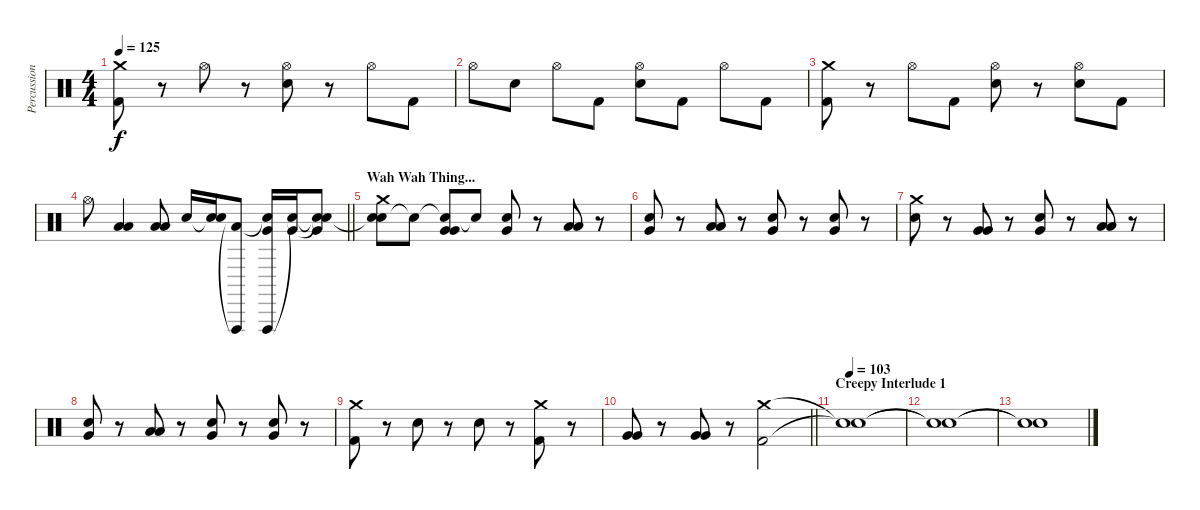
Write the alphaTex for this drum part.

\track ("Percussion" "Percussion") {instrument percussion}
\staff {score}
\articulation defaults
\ts (4 4)
\tempo 125
\clef neutral
\ks c
("Crash medium (hit)" "Kick (hit) 2").8{dy f} r.8 "Hi-Hat (open)".8 r.8 ("Hi-Hat (open)" "Electric Snare (hit)").8 r.8 "Hi-Hat (open)".8 "Kick (hit) 2".8 |
"Hi-Hat (open)".8 "Electric Snare (hit)".8 "Hi-Hat (open)".8 "Kick (hit) 2".8 ("Hi-Hat (open)" "Electric Snare (hit)").8 "Kick (hit) 2".8 "Hi-Hat (open)".8 "Kick (hit) 2".8 |
("Crash medium (hit)" "Kick (hit) 2").8 r.8 "Hi-Hat (open)".8 "Kick (hit) 2".8 ("Hi-Hat (open)" "Electric Snare (hit)").8 r.8 ("Hi-Hat (open)" "Electric Snare (hit)").8 "Kick (hit) 2".8 |
\barLineRight lightlight "Hi-Hat (open)".8
("Low Tom (hit)" "Low Tom (hit)").4 ("Low Tom (hit)" "Low Tom (hit)").8 "Electric Snare (hit)".16 ("Snare (hit)"{t} "Electric Snare (hit)").16 ("Vibraslap (hit)"{t} "Low Tom (hit)").8 ("Vibraslap (hit)" "Snare (hit)"{t} "Very Low Tom (hit)").16 ("Snare (hit)"{t} "Very Low Tom (hit)").16 ("Snare (hit)"{t} "Snare (hit)"{t} "Very Low Tom (hit)").8 |
\section ("" "Wah Wah Thing...")
("Snare (hit)"{t} "Crash medium (hit)" "Electric Snare (hit)").8 "Snare (hit)"{t}.8 ("Snare (hit)"{t} "Very Low Tom (hit)" "Very Low Tom (hit)").8 "Snare (hit)"{t}.8 ("Very Low Tom (hit)" "Electric Snare (hit)").8 r.8 ("Low Tom (hit)" "Low Tom (hit)").8 r.8 |
("Very Low Tom (hit)" "Electric Snare (hit)").8 r.8 ("Low Tom (hit)" "Low Tom (hit)").8 r.8 ("Very Low Tom (hit)" "Electric Snare (hit)").8 r.8 ("Very Low Tom (hit)" "Electric Snare (hit)").8 r.8 |
("Crash medium (hit)" "Electric Snare (hit)").8 r.8 ("Very Low Tom (hit)" "Very Low Tom (hit)").8 r.8 ("Very Low Tom (hit)" "Electric Snare (hit)").8 r.8 ("Low Tom (hit)" "Low Tom (hit)").8 r.8 |
("Very Low Tom (hit)" "Electric Snare (hit)").8 r.8 ("Low Tom (hit)" "Low Tom (hit)").8 r.8 ("Very Low Tom (hit)" "Electric Snare (hit)").8 r.8 ("Very Low Tom (hit)" "Electric Snare (hit)").8 r.8 |
("Crash medium (hit)" "Kick (hit) 2").8 r.8 "Electric Snare (hit)".8 r.8 "Electric Snare (hit)".8 r.8 ("Crash medium (hit)" "Kick (hit) 2").8 r.8 |
\barLineRight lightlight
("Very Low Tom (hit)" "Very Low Tom (hit)").8 r.8 ("Very Low Tom (hit)" "Very Low Tom (hit)").8 r.8 ("Crash medium (hit)" "Kick (hit) 2").2 |
\section ("" "Creepy Interlude 1")
\tempo 103
("Snare (hit)"{t} "Snare (hit)"{t}).1 |
("Snare (hit)"{t} "Snare (hit)"{t}).1 |
("Snare (hit)"{t} "Snare (hit)"{t}).1
